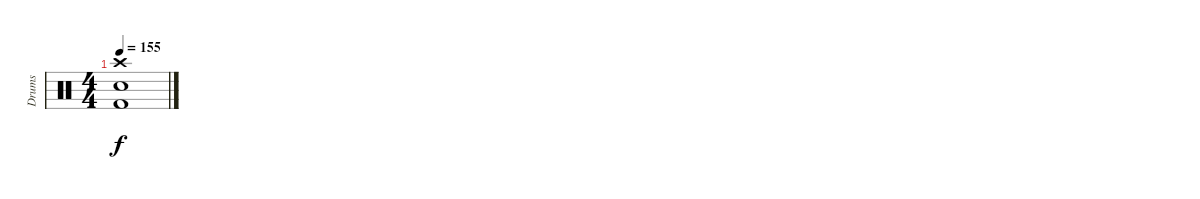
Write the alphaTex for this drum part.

\track ("Drums" "Drums") {instrument percussion}
\staff {score}
\articulation defaults
\ts (4 4)
\tempo 155
\clef neutral
\ks c
("Crash high (hit)" "Electric Snare (hit)" "Kick (hit) 2").1{dy f}
